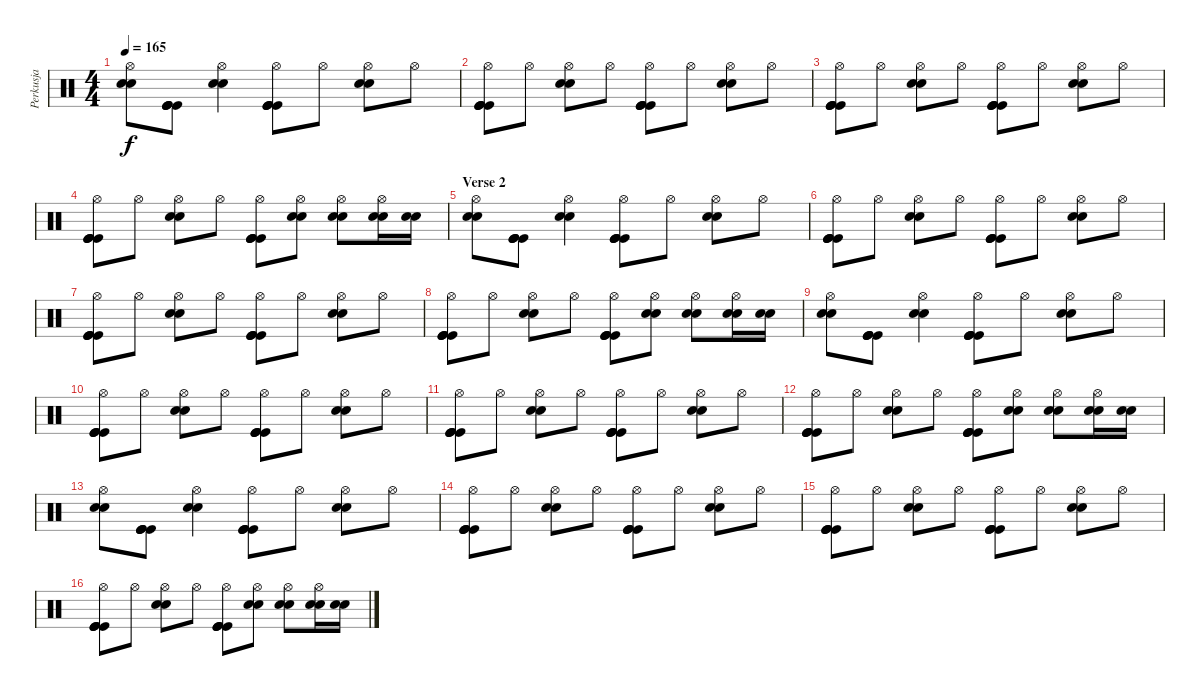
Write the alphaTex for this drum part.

\track ("Perkusja" "Perkusja") {instrument percussion}
\staff {score}
\articulation defaults
\ts (4 4)
\tempo 165
\clef neutral
\ks c
("Hi-Hat (open)" "Snare (hit) 2" "Snare (hit) 2").8{dy f} ("Kick (hit)" "Kick (hit)" "Kick (hit)" "Kick (hit)").8 ("Hi-Hat (open)" "Snare (hit) 2" "Snare (hit) 2").4 ("Hi-Hat (open)" "Kick (hit)" "Kick (hit)" "Kick (hit)" "Kick (hit)").8 "Hi-Hat (open)".8 ("Hi-Hat (open)" "Snare (hit) 2" "Snare (hit) 2").8 "Hi-Hat (open)".8 |
("Hi-Hat (open)" "Kick (hit)" "Kick (hit)" "Kick (hit)" "Kick (hit)").8 "Hi-Hat (open)".8 ("Hi-Hat (open)" "Snare (hit) 2" "Snare (hit) 2").8 "Hi-Hat (open)".8 ("Hi-Hat (open)" "Kick (hit)" "Kick (hit)" "Kick (hit)" "Kick (hit)").8 "Hi-Hat (open)".8 ("Hi-Hat (open)" "Snare (hit) 2" "Snare (hit) 2").8 "Hi-Hat (open)".8 |
("Hi-Hat (open)" "Kick (hit)" "Kick (hit)" "Kick (hit)" "Kick (hit)").8 "Hi-Hat (open)".8 ("Hi-Hat (open)" "Snare (hit) 2" "Snare (hit) 2").8 "Hi-Hat (open)".8 ("Hi-Hat (open)" "Kick (hit)" "Kick (hit)" "Kick (hit)" "Kick (hit)").8 "Hi-Hat (open)".8 ("Hi-Hat (open)" "Snare (hit) 2" "Snare (hit) 2").8 "Hi-Hat (open)".8 |
("Hi-Hat (open)" "Kick (hit)" "Kick (hit)" "Kick (hit)" "Kick (hit)").8 "Hi-Hat (open)".8 ("Hi-Hat (open)" "Snare (hit) 2" "Snare (hit) 2").8 "Hi-Hat (open)".8 ("Hi-Hat (open)" "Kick (hit)" "Kick (hit)" "Kick (hit)" "Kick (hit)").8 ("Hi-Hat (open)" "Snare (hit) 2" "Snare (hit) 2").8 ("Hi-Hat (open)" "Snare (hit) 2" "Snare (hit) 2").8 ("Hi-Hat (open)" "Snare (hit) 2" "Snare (hit) 2").16 ("Snare (hit) 2" "Snare (hit) 2").16 |
\section ("" "Verse 2")
("Hi-Hat (open)" "Snare (hit) 2" "Snare (hit) 2").8 ("Kick (hit)" "Kick (hit)" "Kick (hit)" "Kick (hit)").8 ("Hi-Hat (open)" "Snare (hit) 2" "Snare (hit) 2").4 ("Hi-Hat (open)" "Kick (hit)" "Kick (hit)" "Kick (hit)" "Kick (hit)").8 "Hi-Hat (open)".8 ("Hi-Hat (open)" "Snare (hit) 2" "Snare (hit) 2").8 "Hi-Hat (open)".8 |
("Hi-Hat (open)" "Kick (hit)" "Kick (hit)" "Kick (hit)" "Kick (hit)").8 "Hi-Hat (open)".8 ("Hi-Hat (open)" "Snare (hit) 2" "Snare (hit) 2").8 "Hi-Hat (open)".8 ("Hi-Hat (open)" "Kick (hit)" "Kick (hit)" "Kick (hit)" "Kick (hit)").8 "Hi-Hat (open)".8 ("Hi-Hat (open)" "Snare (hit) 2" "Snare (hit) 2").8 "Hi-Hat (open)".8 |
("Hi-Hat (open)" "Kick (hit)" "Kick (hit)" "Kick (hit)" "Kick (hit)").8 "Hi-Hat (open)".8 ("Hi-Hat (open)" "Snare (hit) 2" "Snare (hit) 2").8 "Hi-Hat (open)".8 ("Hi-Hat (open)" "Kick (hit)" "Kick (hit)" "Kick (hit)" "Kick (hit)").8 "Hi-Hat (open)".8 ("Hi-Hat (open)" "Snare (hit) 2" "Snare (hit) 2").8 "Hi-Hat (open)".8 |
("Hi-Hat (open)" "Kick (hit)" "Kick (hit)" "Kick (hit)" "Kick (hit)").8 "Hi-Hat (open)".8 ("Hi-Hat (open)" "Snare (hit) 2" "Snare (hit) 2").8 "Hi-Hat (open)".8 ("Hi-Hat (open)" "Kick (hit)" "Kick (hit)" "Kick (hit)" "Kick (hit)").8 ("Hi-Hat (open)" "Snare (hit) 2" "Snare (hit) 2").8 ("Hi-Hat (open)" "Snare (hit) 2" "Snare (hit) 2").8 ("Hi-Hat (open)" "Snare (hit) 2" "Snare (hit) 2").16 ("Snare (hit) 2" "Snare (hit) 2").16 |
("Hi-Hat (open)" "Snare (hit) 2" "Snare (hit) 2").8 ("Kick (hit)" "Kick (hit)" "Kick (hit)" "Kick (hit)").8 ("Hi-Hat (open)" "Snare (hit) 2" "Snare (hit) 2").4 ("Hi-Hat (open)" "Kick (hit)" "Kick (hit)" "Kick (hit)" "Kick (hit)").8 "Hi-Hat (open)".8 ("Hi-Hat (open)" "Snare (hit) 2" "Snare (hit) 2").8 "Hi-Hat (open)".8 |
("Hi-Hat (open)" "Kick (hit)" "Kick (hit)" "Kick (hit)" "Kick (hit)").8 "Hi-Hat (open)".8 ("Hi-Hat (open)" "Snare (hit) 2" "Snare (hit) 2").8 "Hi-Hat (open)".8 ("Hi-Hat (open)" "Kick (hit)" "Kick (hit)" "Kick (hit)" "Kick (hit)").8 "Hi-Hat (open)".8 ("Hi-Hat (open)" "Snare (hit) 2" "Snare (hit) 2").8 "Hi-Hat (open)".8 |
("Hi-Hat (open)" "Kick (hit)" "Kick (hit)" "Kick (hit)" "Kick (hit)").8 "Hi-Hat (open)".8 ("Hi-Hat (open)" "Snare (hit) 2" "Snare (hit) 2").8 "Hi-Hat (open)".8 ("Hi-Hat (open)" "Kick (hit)" "Kick (hit)" "Kick (hit)" "Kick (hit)").8 "Hi-Hat (open)".8 ("Hi-Hat (open)" "Snare (hit) 2" "Snare (hit) 2").8 "Hi-Hat (open)".8 |
("Hi-Hat (open)" "Kick (hit)" "Kick (hit)" "Kick (hit)" "Kick (hit)").8 "Hi-Hat (open)".8 ("Hi-Hat (open)" "Snare (hit) 2" "Snare (hit) 2").8 "Hi-Hat (open)".8 ("Hi-Hat (open)" "Kick (hit)" "Kick (hit)" "Kick (hit)" "Kick (hit)").8 ("Hi-Hat (open)" "Snare (hit) 2" "Snare (hit) 2").8 ("Hi-Hat (open)" "Snare (hit) 2" "Snare (hit) 2").8 ("Hi-Hat (open)" "Snare (hit) 2" "Snare (hit) 2").16 ("Snare (hit) 2" "Snare (hit) 2").16 |
("Hi-Hat (open)" "Snare (hit) 2" "Snare (hit) 2").8 ("Kick (hit)" "Kick (hit)" "Kick (hit)" "Kick (hit)").8 ("Hi-Hat (open)" "Snare (hit) 2" "Snare (hit) 2").4 ("Hi-Hat (open)" "Kick (hit)" "Kick (hit)" "Kick (hit)" "Kick (hit)").8 "Hi-Hat (open)".8 ("Hi-Hat (open)" "Snare (hit) 2" "Snare (hit) 2").8 "Hi-Hat (open)".8 |
("Hi-Hat (open)" "Kick (hit)" "Kick (hit)" "Kick (hit)" "Kick (hit)").8 "Hi-Hat (open)".8 ("Hi-Hat (open)" "Snare (hit) 2" "Snare (hit) 2").8 "Hi-Hat (open)".8 ("Hi-Hat (open)" "Kick (hit)" "Kick (hit)" "Kick (hit)" "Kick (hit)").8 "Hi-Hat (open)".8 ("Hi-Hat (open)" "Snare (hit) 2" "Snare (hit) 2").8 "Hi-Hat (open)".8 |
("Hi-Hat (open)" "Kick (hit)" "Kick (hit)" "Kick (hit)" "Kick (hit)").8 "Hi-Hat (open)".8 ("Hi-Hat (open)" "Snare (hit) 2" "Snare (hit) 2").8 "Hi-Hat (open)".8 ("Hi-Hat (open)" "Kick (hit)" "Kick (hit)" "Kick (hit)" "Kick (hit)").8 "Hi-Hat (open)".8 ("Hi-Hat (open)" "Snare (hit) 2" "Snare (hit) 2").8 "Hi-Hat (open)".8 |
("Hi-Hat (open)" "Kick (hit)" "Kick (hit)" "Kick (hit)" "Kick (hit)").8 "Hi-Hat (open)".8 ("Hi-Hat (open)" "Snare (hit) 2" "Snare (hit) 2").8 "Hi-Hat (open)".8 ("Hi-Hat (open)" "Kick (hit)" "Kick (hit)" "Kick (hit)" "Kick (hit)").8 ("Hi-Hat (open)" "Snare (hit) 2" "Snare (hit) 2").8 ("Hi-Hat (open)" "Snare (hit) 2" "Snare (hit) 2").8 ("Hi-Hat (open)" "Snare (hit) 2" "Snare (hit) 2").16 ("Snare (hit) 2" "Snare (hit) 2").16
